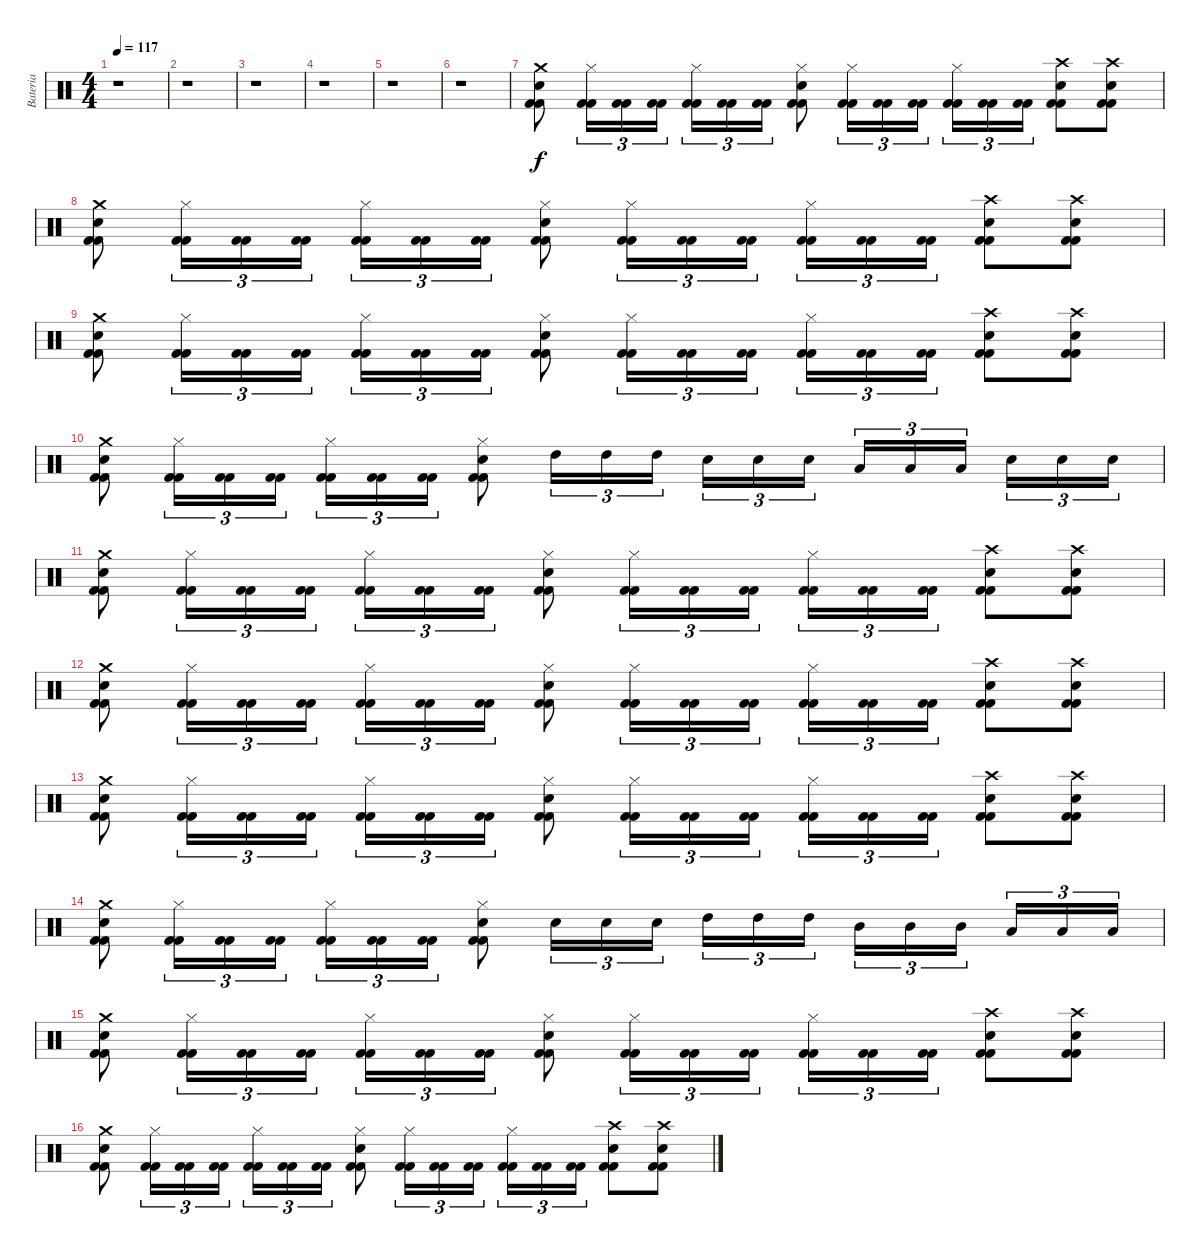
\track ("Bateria" "Bateria") {instrument percussion}
\staff {score}
\articulation defaults
\ts (4 4)
\tempo 117
\clef neutral
\ks c
r.1{dy f} |
r.1 |
r.1 |
r.1 |
r.1 |
r.1 |
("Kick (hit) 2" "Kick (hit) 2" "Snare (hit) 2" "Crash medium (hit)").8 ("Kick (hit) 2" "Kick (hit) 2" "Hi-Hat (closed)").16{tu (3 2)} ("Kick (hit) 2" "Kick (hit) 2").16{tu (3 2)} ("Kick (hit) 2" "Kick (hit) 2").16{tu (3 2)} ("Kick (hit) 2" "Kick (hit) 2" "Hi-Hat (closed)").16{tu (3 2)} ("Kick (hit) 2" "Kick (hit) 2").16{tu (3 2)} ("Kick (hit) 2" "Kick (hit) 2").16{tu (3 2)} ("Kick (hit) 2" "Kick (hit) 2" "Snare (hit) 2" "Hi-Hat (closed)").8 ("Kick (hit) 2" "Kick (hit) 2" "Hi-Hat (closed)").16{tu (3 2)} ("Kick (hit) 2" "Kick (hit) 2").16{tu (3 2)} ("Kick (hit) 2" "Kick (hit) 2").16{tu (3 2)} ("Kick (hit) 2" "Kick (hit) 2" "Hi-Hat (closed)").16{tu (3 2)} ("Kick (hit) 2" "Kick (hit) 2").16{tu (3 2)} ("Kick (hit) 2" "Kick (hit) 2").16{tu (3 2)} ("Kick (hit) 2" "Kick (hit) 2" "Snare (hit) 2" "Crash high (hit)").8 ("Kick (hit) 2" "Kick (hit) 2" "Snare (hit) 2" "Crash high (hit)").8 |
("Kick (hit) 2" "Kick (hit) 2" "Snare (hit) 2" "Crash medium (hit)").8 ("Kick (hit) 2" "Kick (hit) 2" "Hi-Hat (closed)").16{tu (3 2)} ("Kick (hit) 2" "Kick (hit) 2").16{tu (3 2)} ("Kick (hit) 2" "Kick (hit) 2").16{tu (3 2)} ("Kick (hit) 2" "Kick (hit) 2" "Hi-Hat (closed)").16{tu (3 2)} ("Kick (hit) 2" "Kick (hit) 2").16{tu (3 2)} ("Kick (hit) 2" "Kick (hit) 2").16{tu (3 2)} ("Kick (hit) 2" "Kick (hit) 2" "Snare (hit) 2" "Hi-Hat (closed)").8 ("Kick (hit) 2" "Kick (hit) 2" "Hi-Hat (closed)").16{tu (3 2)} ("Kick (hit) 2" "Kick (hit) 2").16{tu (3 2)} ("Kick (hit) 2" "Kick (hit) 2").16{tu (3 2)} ("Kick (hit) 2" "Kick (hit) 2" "Hi-Hat (closed)").16{tu (3 2)} ("Kick (hit) 2" "Kick (hit) 2").16{tu (3 2)} ("Kick (hit) 2" "Kick (hit) 2").16{tu (3 2)} ("Kick (hit) 2" "Kick (hit) 2" "Snare (hit) 2" "Crash high (hit)").8 ("Kick (hit) 2" "Kick (hit) 2" "Snare (hit) 2" "Crash high (hit)").8 |
("Kick (hit) 2" "Kick (hit) 2" "Snare (hit) 2" "Crash medium (hit)").8 ("Kick (hit) 2" "Kick (hit) 2" "Hi-Hat (closed)").16{tu (3 2)} ("Kick (hit) 2" "Kick (hit) 2").16{tu (3 2)} ("Kick (hit) 2" "Kick (hit) 2").16{tu (3 2)} ("Kick (hit) 2" "Kick (hit) 2" "Hi-Hat (closed)").16{tu (3 2)} ("Kick (hit) 2" "Kick (hit) 2").16{tu (3 2)} ("Kick (hit) 2" "Kick (hit) 2").16{tu (3 2)} ("Kick (hit) 2" "Kick (hit) 2" "Snare (hit) 2" "Hi-Hat (closed)").8 ("Kick (hit) 2" "Kick (hit) 2" "Hi-Hat (closed)").16{tu (3 2)} ("Kick (hit) 2" "Kick (hit) 2").16{tu (3 2)} ("Kick (hit) 2" "Kick (hit) 2").16{tu (3 2)} ("Kick (hit) 2" "Kick (hit) 2" "Hi-Hat (closed)").16{tu (3 2)} ("Kick (hit) 2" "Kick (hit) 2").16{tu (3 2)} ("Kick (hit) 2" "Kick (hit) 2").16{tu (3 2)} ("Kick (hit) 2" "Kick (hit) 2" "Snare (hit) 2" "Crash high (hit)").8 ("Kick (hit) 2" "Kick (hit) 2" "Snare (hit) 2" "Crash high (hit)").8 |
("Kick (hit) 2" "Kick (hit) 2" "Snare (hit) 2" "Crash medium (hit)").8 ("Kick (hit) 2" "Kick (hit) 2" "Hi-Hat (closed)").16{tu (3 2)} ("Kick (hit) 2" "Kick (hit) 2").16{tu (3 2)} ("Kick (hit) 2" "Kick (hit) 2").16{tu (3 2)} ("Kick (hit) 2" "Kick (hit) 2" "Hi-Hat (closed)").16{tu (3 2)} ("Kick (hit) 2" "Kick (hit) 2").16{tu (3 2)} ("Kick (hit) 2" "Kick (hit) 2").16{tu (3 2)} ("Kick (hit) 2" "Kick (hit) 2" "Snare (hit) 2" "Hi-Hat (closed)").8 "High Tom (hit)".16{tu (3 2)} "High Tom (hit)".16{tu (3 2)} "High Tom (hit)".16{tu (3 2)} "Snare (hit) 2".16{tu (3 2)} "Snare (hit) 2".16{tu (3 2)} "Snare (hit) 2".16{tu (3 2)} "Low Tom (hit)".16{tu (3 2)} "Low Tom (hit)".16{tu (3 2)} "Low Tom (hit)".16{tu (3 2)} "Snare (hit) 2".16{tu (3 2)} "Snare (hit) 2".16{tu (3 2)} "Snare (hit) 2".16{tu (3 2)} |
("Kick (hit) 2" "Kick (hit) 2" "Snare (hit) 2" "Crash medium (hit)").8 ("Kick (hit) 2" "Kick (hit) 2" "Hi-Hat (closed)").16{tu (3 2)} ("Kick (hit) 2" "Kick (hit) 2").16{tu (3 2)} ("Kick (hit) 2" "Kick (hit) 2").16{tu (3 2)} ("Kick (hit) 2" "Kick (hit) 2" "Hi-Hat (closed)").16{tu (3 2)} ("Kick (hit) 2" "Kick (hit) 2").16{tu (3 2)} ("Kick (hit) 2" "Kick (hit) 2").16{tu (3 2)} ("Kick (hit) 2" "Kick (hit) 2" "Snare (hit) 2" "Hi-Hat (closed)").8 ("Kick (hit) 2" "Kick (hit) 2" "Hi-Hat (closed)").16{tu (3 2)} ("Kick (hit) 2" "Kick (hit) 2").16{tu (3 2)} ("Kick (hit) 2" "Kick (hit) 2").16{tu (3 2)} ("Kick (hit) 2" "Kick (hit) 2" "Hi-Hat (closed)").16{tu (3 2)} ("Kick (hit) 2" "Kick (hit) 2").16{tu (3 2)} ("Kick (hit) 2" "Kick (hit) 2").16{tu (3 2)} ("Kick (hit) 2" "Kick (hit) 2" "Snare (hit) 2" "Crash high (hit)").8 ("Kick (hit) 2" "Kick (hit) 2" "Snare (hit) 2" "Crash high (hit)").8 |
("Kick (hit) 2" "Kick (hit) 2" "Snare (hit) 2" "Crash medium (hit)").8 ("Kick (hit) 2" "Kick (hit) 2" "Hi-Hat (closed)").16{tu (3 2)} ("Kick (hit) 2" "Kick (hit) 2").16{tu (3 2)} ("Kick (hit) 2" "Kick (hit) 2").16{tu (3 2)} ("Kick (hit) 2" "Kick (hit) 2" "Hi-Hat (closed)").16{tu (3 2)} ("Kick (hit) 2" "Kick (hit) 2").16{tu (3 2)} ("Kick (hit) 2" "Kick (hit) 2").16{tu (3 2)} ("Kick (hit) 2" "Kick (hit) 2" "Snare (hit) 2" "Hi-Hat (closed)").8 ("Kick (hit) 2" "Kick (hit) 2" "Hi-Hat (closed)").16{tu (3 2)} ("Kick (hit) 2" "Kick (hit) 2").16{tu (3 2)} ("Kick (hit) 2" "Kick (hit) 2").16{tu (3 2)} ("Kick (hit) 2" "Kick (hit) 2" "Hi-Hat (closed)").16{tu (3 2)} ("Kick (hit) 2" "Kick (hit) 2").16{tu (3 2)} ("Kick (hit) 2" "Kick (hit) 2").16{tu (3 2)} ("Kick (hit) 2" "Kick (hit) 2" "Snare (hit) 2" "Crash high (hit)").8 ("Kick (hit) 2" "Kick (hit) 2" "Snare (hit) 2" "Crash high (hit)").8 |
("Kick (hit) 2" "Kick (hit) 2" "Snare (hit) 2" "Crash medium (hit)").8 ("Kick (hit) 2" "Kick (hit) 2" "Hi-Hat (closed)").16{tu (3 2)} ("Kick (hit) 2" "Kick (hit) 2").16{tu (3 2)} ("Kick (hit) 2" "Kick (hit) 2").16{tu (3 2)} ("Kick (hit) 2" "Kick (hit) 2" "Hi-Hat (closed)").16{tu (3 2)} ("Kick (hit) 2" "Kick (hit) 2").16{tu (3 2)} ("Kick (hit) 2" "Kick (hit) 2").16{tu (3 2)} ("Kick (hit) 2" "Kick (hit) 2" "Snare (hit) 2" "Hi-Hat (closed)").8 ("Kick (hit) 2" "Kick (hit) 2" "Hi-Hat (closed)").16{tu (3 2)} ("Kick (hit) 2" "Kick (hit) 2").16{tu (3 2)} ("Kick (hit) 2" "Kick (hit) 2").16{tu (3 2)} ("Kick (hit) 2" "Kick (hit) 2" "Hi-Hat (closed)").16{tu (3 2)} ("Kick (hit) 2" "Kick (hit) 2").16{tu (3 2)} ("Kick (hit) 2" "Kick (hit) 2").16{tu (3 2)} ("Kick (hit) 2" "Kick (hit) 2" "Snare (hit) 2" "Crash high (hit)").8 ("Kick (hit) 2" "Kick (hit) 2" "Snare (hit) 2" "Crash high (hit)").8 |
("Kick (hit) 2" "Kick (hit) 2" "Snare (hit) 2" "Crash medium (hit)").8 ("Kick (hit) 2" "Kick (hit) 2" "Hi-Hat (closed)").16{tu (3 2)} ("Kick (hit) 2" "Kick (hit) 2").16{tu (3 2)} ("Kick (hit) 2" "Kick (hit) 2").16{tu (3 2)} ("Kick (hit) 2" "Kick (hit) 2" "Hi-Hat (closed)").16{tu (3 2)} ("Kick (hit) 2" "Kick (hit) 2").16{tu (3 2)} ("Kick (hit) 2" "Kick (hit) 2").16{tu (3 2)} ("Kick (hit) 2" "Kick (hit) 2" "Snare (hit) 2" "Hi-Hat (closed)").8 "Snare (hit) 2".16{tu (3 2)} "Snare (hit) 2".16{tu (3 2)} "Snare (hit) 2".16{tu (3 2)} "High Tom (hit)".16{tu (3 2)} "High Tom (hit)".16{tu (3 2)} "High Tom (hit)".16{tu (3 2)} "Mid Tom (hit)".16{tu (3 2)} "Mid Tom (hit)".16{tu (3 2)} "Mid Tom (hit)".16{tu (3 2)} "Low Tom (hit)".16{tu (3 2)} "Low Tom (hit)".16{tu (3 2)} "Low Tom (hit)".16{tu (3 2)} |
("Kick (hit) 2" "Kick (hit) 2" "Snare (hit) 2" "Crash medium (hit)").8 ("Kick (hit) 2" "Kick (hit) 2" "Hi-Hat (closed)").16{tu (3 2)} ("Kick (hit) 2" "Kick (hit) 2").16{tu (3 2)} ("Kick (hit) 2" "Kick (hit) 2").16{tu (3 2)} ("Kick (hit) 2" "Kick (hit) 2" "Hi-Hat (closed)").16{tu (3 2)} ("Kick (hit) 2" "Kick (hit) 2").16{tu (3 2)} ("Kick (hit) 2" "Kick (hit) 2").16{tu (3 2)} ("Kick (hit) 2" "Kick (hit) 2" "Snare (hit) 2" "Hi-Hat (closed)").8 ("Kick (hit) 2" "Kick (hit) 2" "Hi-Hat (closed)").16{tu (3 2)} ("Kick (hit) 2" "Kick (hit) 2").16{tu (3 2)} ("Kick (hit) 2" "Kick (hit) 2").16{tu (3 2)} ("Kick (hit) 2" "Kick (hit) 2" "Hi-Hat (closed)").16{tu (3 2)} ("Kick (hit) 2" "Kick (hit) 2").16{tu (3 2)} ("Kick (hit) 2" "Kick (hit) 2").16{tu (3 2)} ("Kick (hit) 2" "Kick (hit) 2" "Snare (hit) 2" "Crash high (hit)").8 ("Kick (hit) 2" "Kick (hit) 2" "Snare (hit) 2" "Crash high (hit)").8 |
("Kick (hit) 2" "Kick (hit) 2" "Snare (hit) 2" "Crash medium (hit)").8 ("Kick (hit) 2" "Kick (hit) 2" "Hi-Hat (closed)").16{tu (3 2)} ("Kick (hit) 2" "Kick (hit) 2").16{tu (3 2)} ("Kick (hit) 2" "Kick (hit) 2").16{tu (3 2)} ("Kick (hit) 2" "Kick (hit) 2" "Hi-Hat (closed)").16{tu (3 2)} ("Kick (hit) 2" "Kick (hit) 2").16{tu (3 2)} ("Kick (hit) 2" "Kick (hit) 2").16{tu (3 2)} ("Kick (hit) 2" "Kick (hit) 2" "Snare (hit) 2" "Hi-Hat (closed)").8 ("Kick (hit) 2" "Kick (hit) 2" "Hi-Hat (closed)").16{tu (3 2)} ("Kick (hit) 2" "Kick (hit) 2").16{tu (3 2)} ("Kick (hit) 2" "Kick (hit) 2").16{tu (3 2)} ("Kick (hit) 2" "Kick (hit) 2" "Hi-Hat (closed)").16{tu (3 2)} ("Kick (hit) 2" "Kick (hit) 2").16{tu (3 2)} ("Kick (hit) 2" "Kick (hit) 2").16{tu (3 2)} ("Kick (hit) 2" "Kick (hit) 2" "Snare (hit) 2" "Crash high (hit)").8 ("Kick (hit) 2" "Kick (hit) 2" "Snare (hit) 2" "Crash high (hit)").8
